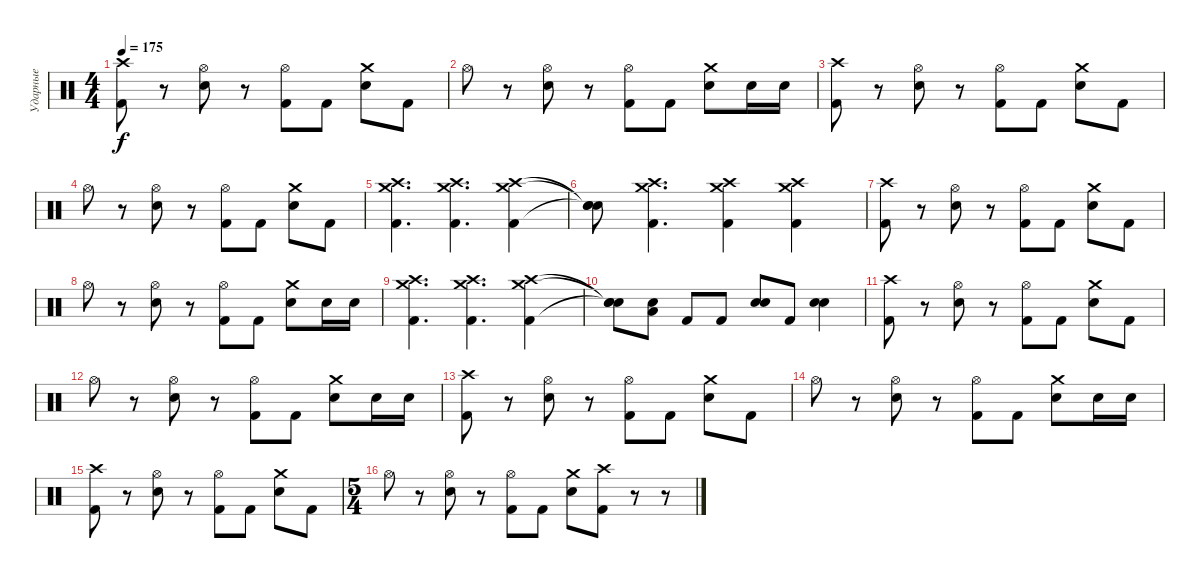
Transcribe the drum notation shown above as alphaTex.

\track ("Ударные" "Ударные") {instrument percussion}
\staff
\articulation defaults
\ts (4 4)
\tempo 175
\clef neutral
\ks c
("Kick (hit) 2" "Crash high (hit)").8{dy f} r.8 ("Electric Snare (hit)" "Hi-Hat (open)").8 r.8 ("Kick (hit) 2" "Hi-Hat (open)").8 "Kick (hit) 2".8 ("Electric Snare (hit)" "Crash medium (hit)").8 "Kick (hit) 2".8 |
"Hi-Hat (open)".8 r.8 ("Electric Snare (hit)" "Hi-Hat (open)").8 r.8 ("Kick (hit) 2" "Hi-Hat (open)").8 "Kick (hit) 2".8 ("Electric Snare (hit)" "Crash medium (hit)").8 "Electric Snare (hit)".16 "Electric Snare (hit)".16 |
("Kick (hit) 2" "Crash high (hit)").8 r.8 ("Electric Snare (hit)" "Hi-Hat (open)").8 r.8 ("Kick (hit) 2" "Hi-Hat (open)").8 "Kick (hit) 2".8 ("Electric Snare (hit)" "Crash medium (hit)").8 "Kick (hit) 2".8 |
"Hi-Hat (open)".8 r.8 ("Electric Snare (hit)" "Hi-Hat (open)").8 r.8 ("Kick (hit) 2" "Hi-Hat (open)").8 "Kick (hit) 2".8 ("Electric Snare (hit)" "Crash medium (hit)").8 "Kick (hit) 2".8 |
("Kick (hit) 2" "Crash high (hit)" "Crash medium (hit)").4{d} ("Kick (hit) 2" "Crash high (hit)" "Crash medium (hit)").4{d} ("Kick (hit) 2" "Crash high (hit)" "Crash medium (hit)").4 |
("Snare (hit)"{t} "Snare (hit)"{t} "Snare (hit)"{t}).8 ("Kick (hit) 2" "Crash high (hit)" "Crash medium (hit)").4{d} ("Kick (hit) 2" "Crash high (hit)" "Crash medium (hit)").4 ("Kick (hit) 2" "Crash high (hit)" "Crash medium (hit)").4 |
("Kick (hit) 2" "Crash high (hit)").8 r.8 ("Electric Snare (hit)" "Hi-Hat (open)").8 r.8 ("Kick (hit) 2" "Hi-Hat (open)").8 "Kick (hit) 2".8 ("Electric Snare (hit)" "Crash medium (hit)").8 "Kick (hit) 2".8 |
"Hi-Hat (open)".8 r.8 ("Electric Snare (hit)" "Hi-Hat (open)").8 r.8 ("Kick (hit) 2" "Hi-Hat (open)").8 "Kick (hit) 2".8 ("Electric Snare (hit)" "Crash medium (hit)").8 "Electric Snare (hit)".16 "Electric Snare (hit)".16 |
("Kick (hit) 2" "Crash high (hit)" "Crash medium (hit)").4{d} ("Kick (hit) 2" "Crash high (hit)" "Crash medium (hit)").4{d} ("Kick (hit) 2" "Crash high (hit)" "Crash medium (hit)").4 |
("Snare (hit)"{t} "Snare (hit)"{t} "Snare (hit)"{t}).8 ("Electric Snare (hit)" "Low Tom (hit)").8 "Kick (hit) 2".8 "Kick (hit) 2".8 ("Electric Snare (hit)" "Electric Snare (hit)").8{bd 60} "Kick (hit) 2".8 ("Electric Snare (hit)" "Electric Snare (hit)").4{bd 60} |
("Kick (hit) 2" "Crash high (hit)").8 r.8 ("Electric Snare (hit)" "Hi-Hat (open)").8 r.8 ("Kick (hit) 2" "Hi-Hat (open)").8 "Kick (hit) 2".8 ("Electric Snare (hit)" "Crash medium (hit)").8 "Kick (hit) 2".8 |
"Hi-Hat (open)".8 r.8 ("Electric Snare (hit)" "Hi-Hat (open)").8 r.8 ("Kick (hit) 2" "Hi-Hat (open)").8 "Kick (hit) 2".8 ("Electric Snare (hit)" "Crash medium (hit)").8 "Electric Snare (hit)".16 "Electric Snare (hit)".16 |
("Kick (hit) 2" "Crash high (hit)").8 r.8 ("Electric Snare (hit)" "Hi-Hat (open)").8 r.8 ("Kick (hit) 2" "Hi-Hat (open)").8 "Kick (hit) 2".8 ("Electric Snare (hit)" "Crash medium (hit)").8 "Kick (hit) 2".8 |
"Hi-Hat (open)".8 r.8 ("Electric Snare (hit)" "Hi-Hat (open)").8 r.8 ("Kick (hit) 2" "Hi-Hat (open)").8 "Kick (hit) 2".8 ("Electric Snare (hit)" "Crash medium (hit)").8 "Electric Snare (hit)".16 "Electric Snare (hit)".16 |
("Kick (hit) 2" "Crash high (hit)").8 r.8 ("Electric Snare (hit)" "Hi-Hat (open)").8 r.8 ("Kick (hit) 2" "Hi-Hat (open)").8 "Kick (hit) 2".8 ("Electric Snare (hit)" "Crash medium (hit)").8 "Kick (hit) 2".8 |
\ts (5 4)
"Hi-Hat (open)".8 r.8 ("Electric Snare (hit)" "Hi-Hat (open)").8 r.8 ("Kick (hit) 2" "Hi-Hat (open)").8 "Kick (hit) 2".8 ("Electric Snare (hit)" "Crash medium (hit)").8 ("Kick (hit) 2" "Crash high (hit)").8 r.8 r.8
